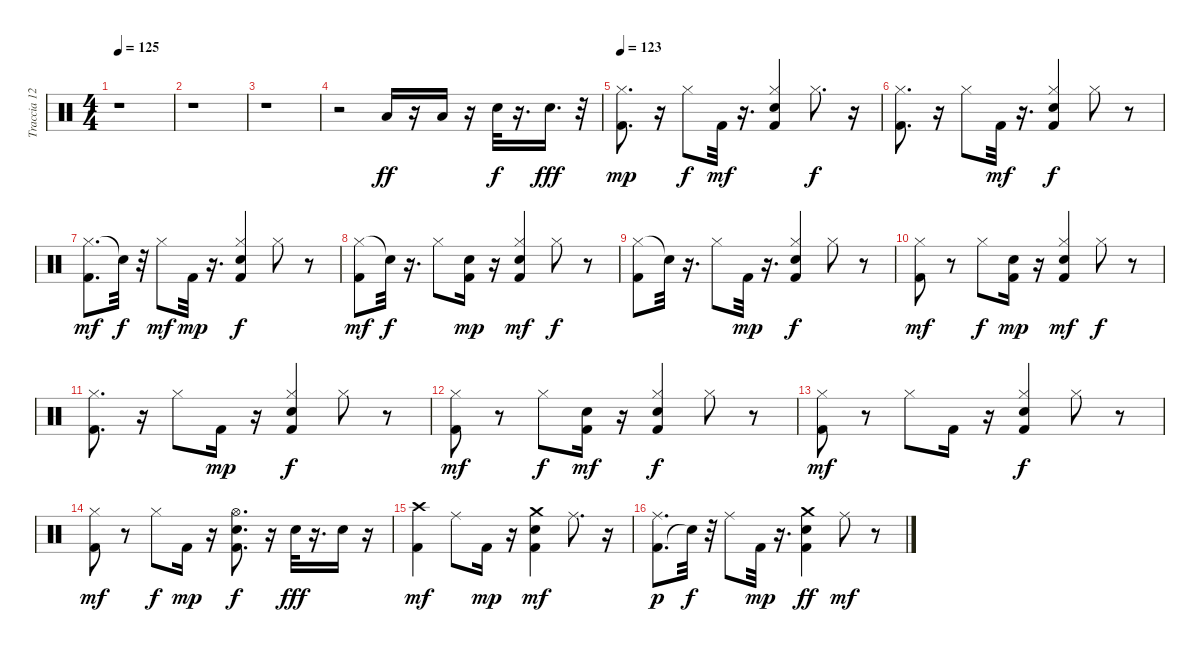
\track ("Traccia 12-13-14-15-16-17-18" "Traccia 12") {instrument percussion}
\staff {score}
\articulation defaults
\ts (4 4)
\tempo 125
\clef neutral
\ks c
r.1{dy ff} |
r.1 |
r.1 |
r.2 "Low Tom (hit)".16 r.16 "Low Tom (hit)".16 r.16 "Electric Snare (hit)".32{dy f} r.16{d} "Electric Snare (hit)".16{d dy fff} r.32 |
\tempo 123
("Hi-Hat (closed)" "Kick (hit) 2").8{d dy mp} r.16 "Hi-Hat (closed)".8{dy f} "Kick (hit) 2".32{dy mf} r.16{d} ("Hi-Hat (closed)" "Electric Snare (hit)" "Kick (hit) 2").4 "Hi-Hat (closed)".8{d dy f} r.16 |
("Hi-Hat (closed)" "Kick (hit) 2").8{d} r.16 "Hi-Hat (closed)".8 "Kick (hit) 2".32{dy mf} r.16{d} ("Hi-Hat (closed)" "Electric Snare (hit)" "Kick (hit) 2").4{dy f} "Hi-Hat (closed)".8 r.8 |
("Hi-Hat (closed)" "Kick (hit) 2").8{d dy mf} "Snare (hit)"{t}.32{dy f} r.32 "Hi-Hat (closed)".8{dy mf} "Kick (hit) 2".32{dy mp} r.16{d} ("Hi-Hat (closed)" "Electric Snare (hit)" "Kick (hit) 2").4{dy f} "Hi-Hat (closed)".8 r.8 |
("Hi-Hat (closed)" "Kick (hit) 2").8{dy mf} "Snare (hit)"{t}.32{dy f} r.16{d} "Hi-Hat (closed)".8 ("Electric Snare (hit)" "Kick (hit) 2").16{dy mp} r.16 ("Hi-Hat (closed)" "Electric Snare (hit)" "Kick (hit) 2").4{dy mf} "Hi-Hat (closed)".8{dy f} r.8 |
("Hi-Hat (closed)" "Kick (hit) 2").8 "Snare (hit)"{t}.32 r.16{d} "Hi-Hat (closed)".8 "Kick (hit) 2".32{dy mp} r.16{d} ("Hi-Hat (closed)" "Electric Snare (hit)" "Kick (hit) 2").4{dy f} "Hi-Hat (closed)".8 r.8 |
("Hi-Hat (closed)" "Kick (hit) 2").8{dy mf} r.8 "Hi-Hat (closed)".8{dy f} ("Electric Snare (hit)" "Kick (hit) 2").16{dy mp} r.16 ("Hi-Hat (closed)" "Electric Snare (hit)" "Kick (hit) 2").4{dy mf} "Hi-Hat (closed)".8{dy f} r.8 |
("Hi-Hat (closed)" "Kick (hit) 2").8{d} r.16 "Hi-Hat (closed)".8 "Kick (hit) 2".16{dy mp} r.16 ("Hi-Hat (closed)" "Electric Snare (hit)" "Kick (hit) 2").4{dy f} "Hi-Hat (closed)".8 r.8 |
("Hi-Hat (closed)" "Kick (hit) 2").8{dy mf} r.8 "Hi-Hat (closed)".8{dy f} ("Electric Snare (hit)" "Kick (hit) 2").16{dy mf} r.16 ("Hi-Hat (closed)" "Electric Snare (hit)" "Kick (hit) 2").4{dy f} "Hi-Hat (closed)".8 r.8 |
("Hi-Hat (closed)" "Kick (hit) 2").8{dy mf} r.8 "Hi-Hat (closed)".8 "Kick (hit) 2".16 r.16 ("Hi-Hat (closed)" "Electric Snare (hit)" "Kick (hit) 2").4{dy f} "Hi-Hat (closed)".8 r.8 |
("Hi-Hat (closed)" "Kick (hit) 2").8{dy mf} r.8 "Hi-Hat (closed)".8{dy f} "Kick (hit) 2".16{dy mp} r.16 ("Hi-Hat (open)" "Electric Snare (hit)" "Kick (hit) 2").8{d dy f} r.16 "Electric Snare (hit)".32{dy fff} r.16{d} "Electric Snare (hit)".16 r.16 |
("Kick (hit) 2" "Crash high (hit)").4{dy mf} "Ride (middle)".8 "Kick (hit) 2".16{dy mp} r.16 ("Electric Snare (hit)" "Kick (hit) 2" "Crash medium (hit)").4{dy mf} "Ride (middle)".8{d} r.16 |
("Kick (hit) 2" "Ride (middle)").8{d dy p} "Snare (hit)"{t}.32{dy f} r.32 "Ride (middle)".8 "Kick (hit) 2".32{dy mp} r.16{d} ("Electric Snare (hit)" "Kick (hit) 2" "Crash medium (hit)").4{dy ff} "Ride (middle)".8{dy mf} r.8
